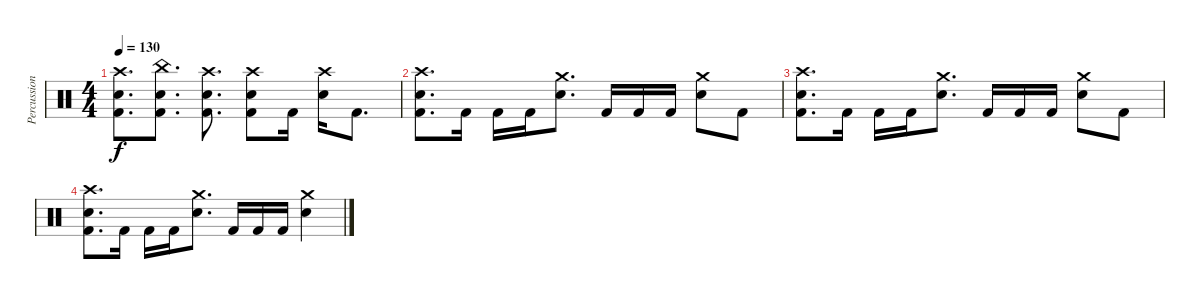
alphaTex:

\track ("Percussion" "Percussion") {instrument percussion}
\staff {score}
\articulation defaults
\ts (4 4)
\tempo 130
\clef neutral
\ks c
("Crash high (hit)" "Electric Snare (hit)" "Kick (hit) 2").8{d dy f} ("China (hit)" "Electric Snare (hit)" "Kick (hit) 2").8{d} ("Crash high (hit)" "Electric Snare (hit)" "Kick (hit) 2").8{d} ("Crash high (hit)" "Electric Snare (hit)" "Kick (hit) 2").8 "Kick (hit) 2".16 ("Crash high (hit)" "Electric Snare (hit)").16 "Kick (hit) 2".8{d} |
("Crash high (hit)" "Electric Snare (hit)" "Kick (hit) 2").8{d} "Kick (hit) 2".16 "Kick (hit) 2".16 "Kick (hit) 2".16 ("Crash medium (hit)" "Electric Snare (hit)").8{d} "Kick (hit) 2".16 "Kick (hit) 2".16 "Kick (hit) 2".16 ("Crash medium (hit)" "Electric Snare (hit)").8 "Kick (hit) 2".8 |
("Crash high (hit)" "Electric Snare (hit)" "Kick (hit) 2").8{d} "Kick (hit) 2".16 "Kick (hit) 2".16 "Kick (hit) 2".16 ("Crash medium (hit)" "Electric Snare (hit)").8{d} "Kick (hit) 2".16 "Kick (hit) 2".16 "Kick (hit) 2".16 ("Crash medium (hit)" "Electric Snare (hit)").8 "Kick (hit) 2".8 |
("Crash high (hit)" "Electric Snare (hit)" "Kick (hit) 2").8{d} "Kick (hit) 2".16 "Kick (hit) 2".16 "Kick (hit) 2".16 ("Crash medium (hit)" "Electric Snare (hit)").8{d} "Kick (hit) 2".16 "Kick (hit) 2".16 "Kick (hit) 2".16 ("Crash medium (hit)" "Electric Snare (hit)").4
